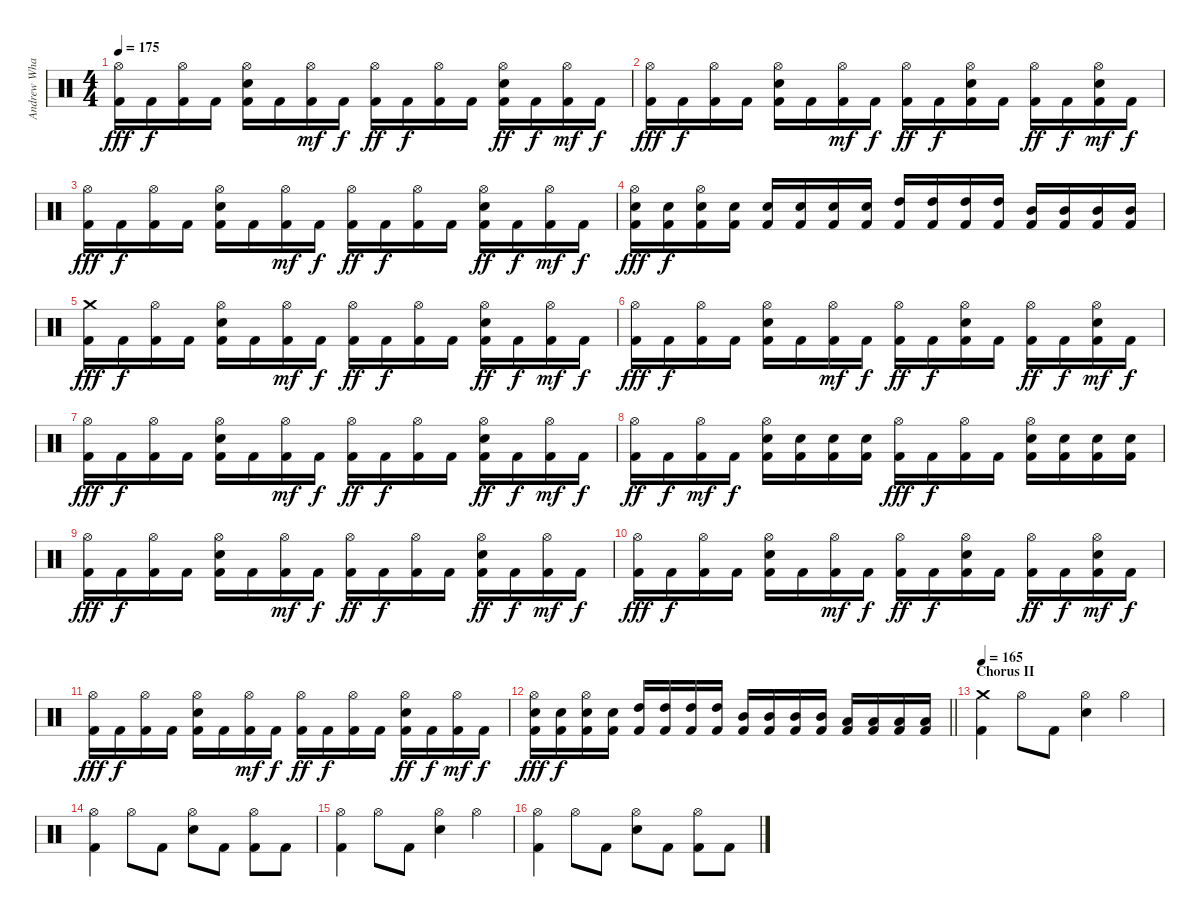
\track ("Andrew Whale" "Andrew Wha") {instrument percussion}
\staff {score}
\articulation defaults
\ts (4 4)
\tempo 175
\clef neutral
\ks c
("Hi-Hat (open)" "Kick (hit) 2").16{dy fff} "Kick (hit) 2".16{dy f} ("Hi-Hat (open)" "Kick (hit) 2").16 "Kick (hit) 2".16 ("Hi-Hat (open)" "Snare (hit) 2" "Kick (hit) 2").16 "Kick (hit) 2".16 ("Hi-Hat (open)" "Kick (hit) 2").16{dy mf} "Kick (hit) 2".16{dy f} ("Hi-Hat (open)" "Kick (hit) 2").16{dy ff} "Kick (hit) 2".16{dy f} ("Hi-Hat (open)" "Kick (hit) 2").16 "Kick (hit) 2".16 ("Hi-Hat (open)" "Snare (hit) 2" "Kick (hit) 2").16{dy ff} "Kick (hit) 2".16{dy f} ("Hi-Hat (open)" "Kick (hit) 2").16{dy mf} "Kick (hit) 2".16{dy f} |
("Hi-Hat (open)" "Kick (hit) 2").16{dy fff} "Kick (hit) 2".16{dy f} ("Hi-Hat (open)" "Kick (hit) 2").16 "Kick (hit) 2".16 ("Hi-Hat (open)" "Snare (hit) 2" "Kick (hit) 2").16 "Kick (hit) 2".16 ("Hi-Hat (open)" "Kick (hit) 2").16{dy mf} "Kick (hit) 2".16{dy f} ("Hi-Hat (open)" "Kick (hit) 2").16{dy ff} "Kick (hit) 2".16{dy f} ("Hi-Hat (open)" "Snare (hit) 2" "Kick (hit) 2").16 "Kick (hit) 2".16 ("Hi-Hat (open)" "Kick (hit) 2").16{dy ff} "Kick (hit) 2".16{dy f} ("Hi-Hat (open)" "Snare (hit) 2" "Kick (hit) 2").16{dy mf} "Kick (hit) 2".16{dy f} |
("Hi-Hat (open)" "Kick (hit) 2").16{dy fff} "Kick (hit) 2".16{dy f} ("Hi-Hat (open)" "Kick (hit) 2").16 "Kick (hit) 2".16 ("Hi-Hat (open)" "Snare (hit) 2" "Kick (hit) 2").16 "Kick (hit) 2".16 ("Hi-Hat (open)" "Kick (hit) 2").16{dy mf} "Kick (hit) 2".16{dy f} ("Hi-Hat (open)" "Kick (hit) 2").16{dy ff} "Kick (hit) 2".16{dy f} ("Hi-Hat (open)" "Kick (hit) 2").16 "Kick (hit) 2".16 ("Hi-Hat (open)" "Snare (hit) 2" "Kick (hit) 2").16{dy ff} "Kick (hit) 2".16{dy f} ("Hi-Hat (open)" "Kick (hit) 2").16{dy mf} "Kick (hit) 2".16{dy f} |
("Hi-Hat (open)" "Snare (hit) 2" "Kick (hit) 2").16{dy fff} ("Snare (hit) 2" "Kick (hit) 2").16{dy f} ("Hi-Hat (open)" "Snare (hit) 2" "Kick (hit) 2").16 ("Snare (hit) 2" "Kick (hit) 2").16 ("Snare (hit) 2" "Kick (hit) 2").16 ("Snare (hit) 2" "Kick (hit) 2").16 ("Snare (hit) 2" "Kick (hit) 2").16 ("Snare (hit) 2" "Kick (hit) 2").16 ("High Tom (hit)" "Kick (hit) 2").16 ("High Tom (hit)" "Kick (hit) 2").16 ("High Tom (hit)" "Kick (hit) 2").16 ("High Tom (hit)" "Kick (hit) 2").16 ("Mid Tom (hit)" "Kick (hit) 2").16 ("Mid Tom (hit)" "Kick (hit) 2").16 ("Mid Tom (hit)" "Kick (hit) 2").16 ("Mid Tom (hit)" "Kick (hit) 2").16 |
("Crash medium (hit)" "Kick (hit) 2").16{dy fff} "Kick (hit) 2".16{dy f} ("Hi-Hat (open)" "Kick (hit) 2").16 "Kick (hit) 2".16 ("Hi-Hat (open)" "Snare (hit) 2" "Kick (hit) 2").16 "Kick (hit) 2".16 ("Hi-Hat (open)" "Kick (hit) 2").16{dy mf} "Kick (hit) 2".16{dy f} ("Hi-Hat (open)" "Kick (hit) 2").16{dy ff} "Kick (hit) 2".16{dy f} ("Hi-Hat (open)" "Kick (hit) 2").16 "Kick (hit) 2".16 ("Hi-Hat (open)" "Snare (hit) 2" "Kick (hit) 2").16{dy ff} "Kick (hit) 2".16{dy f} ("Hi-Hat (open)" "Kick (hit) 2").16{dy mf} "Kick (hit) 2".16{dy f} |
("Hi-Hat (open)" "Kick (hit) 2").16{dy fff} "Kick (hit) 2".16{dy f} ("Hi-Hat (open)" "Kick (hit) 2").16 "Kick (hit) 2".16 ("Hi-Hat (open)" "Snare (hit) 2" "Kick (hit) 2").16 "Kick (hit) 2".16 ("Hi-Hat (open)" "Kick (hit) 2").16{dy mf} "Kick (hit) 2".16{dy f} ("Hi-Hat (open)" "Kick (hit) 2").16{dy ff} "Kick (hit) 2".16{dy f} ("Hi-Hat (open)" "Snare (hit) 2" "Kick (hit) 2").16 "Kick (hit) 2".16 ("Hi-Hat (open)" "Kick (hit) 2").16{dy ff} "Kick (hit) 2".16{dy f} ("Hi-Hat (open)" "Snare (hit) 2" "Kick (hit) 2").16{dy mf} "Kick (hit) 2".16{dy f} |
("Hi-Hat (open)" "Kick (hit) 2").16{dy fff} "Kick (hit) 2".16{dy f} ("Hi-Hat (open)" "Kick (hit) 2").16 "Kick (hit) 2".16 ("Hi-Hat (open)" "Snare (hit) 2" "Kick (hit) 2").16 "Kick (hit) 2".16 ("Hi-Hat (open)" "Kick (hit) 2").16{dy mf} "Kick (hit) 2".16{dy f} ("Hi-Hat (open)" "Kick (hit) 2").16{dy ff} "Kick (hit) 2".16{dy f} ("Hi-Hat (open)" "Kick (hit) 2").16 "Kick (hit) 2".16 ("Hi-Hat (open)" "Snare (hit) 2" "Kick (hit) 2").16{dy ff} "Kick (hit) 2".16{dy f} ("Hi-Hat (open)" "Kick (hit) 2").16{dy mf} "Kick (hit) 2".16{dy f} |
("Hi-Hat (open)" "Kick (hit) 2").16{dy ff} "Kick (hit) 2".16{dy f} ("Hi-Hat (open)" "Kick (hit) 2").16{dy mf} "Kick (hit) 2".16{dy f} ("Hi-Hat (open)" "Snare (hit) 2" "Kick (hit) 2").16 ("Snare (hit) 2" "Kick (hit) 2").16 ("Snare (hit) 2" "Kick (hit) 2").16 ("Snare (hit) 2" "Kick (hit) 2").16 ("Hi-Hat (open)" "Kick (hit) 2").16{dy fff} "Kick (hit) 2".16{dy f} ("Hi-Hat (open)" "Kick (hit) 2").16 "Kick (hit) 2".16 ("Hi-Hat (open)" "Snare (hit) 2" "Kick (hit) 2").16 ("Snare (hit) 2" "Kick (hit) 2").16 ("Snare (hit) 2" "Kick (hit) 2").16 ("Snare (hit) 2" "Kick (hit) 2").16 |
("Hi-Hat (open)" "Kick (hit) 2").16{dy fff} "Kick (hit) 2".16{dy f} ("Hi-Hat (open)" "Kick (hit) 2").16 "Kick (hit) 2".16 ("Hi-Hat (open)" "Snare (hit) 2" "Kick (hit) 2").16 "Kick (hit) 2".16 ("Hi-Hat (open)" "Kick (hit) 2").16{dy mf} "Kick (hit) 2".16{dy f} ("Hi-Hat (open)" "Kick (hit) 2").16{dy ff} "Kick (hit) 2".16{dy f} ("Hi-Hat (open)" "Kick (hit) 2").16 "Kick (hit) 2".16 ("Hi-Hat (open)" "Snare (hit) 2" "Kick (hit) 2").16{dy ff} "Kick (hit) 2".16{dy f} ("Hi-Hat (open)" "Kick (hit) 2").16{dy mf} "Kick (hit) 2".16{dy f} |
("Hi-Hat (open)" "Kick (hit) 2").16{dy fff} "Kick (hit) 2".16{dy f} ("Hi-Hat (open)" "Kick (hit) 2").16 "Kick (hit) 2".16 ("Hi-Hat (open)" "Snare (hit) 2" "Kick (hit) 2").16 "Kick (hit) 2".16 ("Hi-Hat (open)" "Kick (hit) 2").16{dy mf} "Kick (hit) 2".16{dy f} ("Hi-Hat (open)" "Kick (hit) 2").16{dy ff} "Kick (hit) 2".16{dy f} ("Hi-Hat (open)" "Snare (hit) 2" "Kick (hit) 2").16 "Kick (hit) 2".16 ("Hi-Hat (open)" "Kick (hit) 2").16{dy ff} "Kick (hit) 2".16{dy f} ("Hi-Hat (open)" "Snare (hit) 2" "Kick (hit) 2").16{dy mf} "Kick (hit) 2".16{dy f} |
("Hi-Hat (open)" "Kick (hit) 2").16{dy fff} "Kick (hit) 2".16{dy f} ("Hi-Hat (open)" "Kick (hit) 2").16 "Kick (hit) 2".16 ("Hi-Hat (open)" "Snare (hit) 2" "Kick (hit) 2").16 "Kick (hit) 2".16 ("Hi-Hat (open)" "Kick (hit) 2").16{dy mf} "Kick (hit) 2".16{dy f} ("Hi-Hat (open)" "Kick (hit) 2").16{dy ff} "Kick (hit) 2".16{dy f} ("Hi-Hat (open)" "Kick (hit) 2").16 "Kick (hit) 2".16 ("Hi-Hat (open)" "Snare (hit) 2" "Kick (hit) 2").16{dy ff} "Kick (hit) 2".16{dy f} ("Hi-Hat (open)" "Kick (hit) 2").16{dy mf} "Kick (hit) 2".16{dy f} |
\barLineRight lightlight
("Hi-Hat (open)" "Snare (hit) 2" "Kick (hit) 2").16{dy fff} ("Snare (hit) 2" "Kick (hit) 2").16{dy f} ("Hi-Hat (open)" "Snare (hit) 2" "Kick (hit) 2").16 ("Snare (hit) 2" "Kick (hit) 2").16 ("High Tom (hit)" "Kick (hit) 2").16 ("High Tom (hit)" "Kick (hit) 2").16 ("High Tom (hit)" "Kick (hit) 2").16 ("High Tom (hit)" "Kick (hit) 2").16 ("Mid Tom (hit)" "Kick (hit) 2").16 ("Mid Tom (hit)" "Kick (hit) 2").16 ("Mid Tom (hit)" "Kick (hit) 2").16 ("Mid Tom (hit)" "Kick (hit) 2").16 ("Low Tom (hit)" "Kick (hit) 2").16 ("Low Tom (hit)" "Kick (hit) 2").16 ("Low Tom (hit)" "Kick (hit) 2").16 ("Low Tom (hit)" "Kick (hit) 2").16 |
\section ("" "Chorus II")
\tempo 165
("Crash medium (hit)" "Kick (hit) 2").4 "Hi-Hat (open)".8 "Kick (hit) 2".8 ("Hi-Hat (open)" "Snare (hit) 2").4 "Hi-Hat (open)".4 |
("Hi-Hat (open)" "Kick (hit) 2").4 "Hi-Hat (open)".8 "Kick (hit) 2".8 ("Hi-Hat (open)" "Snare (hit) 2").8 "Kick (hit) 2".8 ("Hi-Hat (open)" "Kick (hit) 2").8 "Kick (hit) 2".8 |
("Hi-Hat (open)" "Kick (hit) 2").4 "Hi-Hat (open)".8 "Kick (hit) 2".8 ("Hi-Hat (open)" "Snare (hit) 2").4 "Hi-Hat (open)".4 |
("Hi-Hat (open)" "Kick (hit) 2").4 "Hi-Hat (open)".8 "Kick (hit) 2".8 ("Hi-Hat (open)" "Snare (hit) 2").8 "Kick (hit) 2".8 ("Hi-Hat (open)" "Kick (hit) 2").8 "Kick (hit) 2".8
